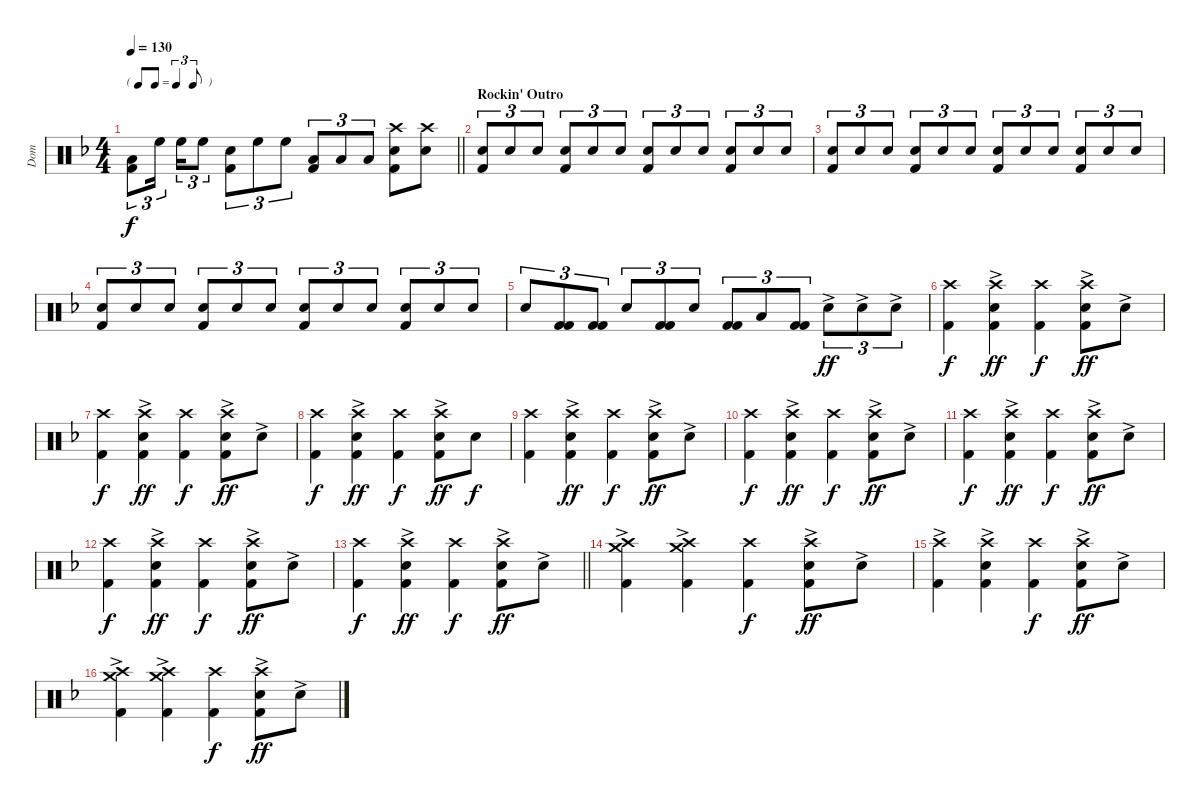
\track ("Dom" "Dom") {instrument percussion}
\staff {score}
\articulation defaults
\ts (4 4)
\tf triplet8th
\tempo 130
\clef neutral
\barLineRight lightlight
\ks dminor
("Low Tom (hit)" "Kick (hit) 2").8{tu (3 2) dy f} "High Floor Tom (hit)".16{tu (3 2) beam splitsecondary} "High Floor Tom (hit)".16{tu (3 2)} "High Floor Tom (hit)".8{tu (3 2)} ("Electric Snare (hit)" "Kick (hit) 2").8{tu (3 2)} "High Floor Tom (hit)".8{tu (3 2)} "High Floor Tom (hit)".8{tu (3 2)} ("Low Tom (hit)" "Kick (hit) 2").8{tu (3 2)} "Low Tom (hit)".8{tu (3 2)} "Low Tom (hit)".8{tu (3 2)} ("Crash high (hit)" "Electric Snare (hit)" "Kick (hit) 2").8 ("Crash high (hit)" "Electric Snare (hit)").8 |
\section ("" "Rockin' Outro")
("Electric Snare (hit)" "Kick (hit) 2").8{tu (3 2)} "Electric Snare (hit)".8{tu (3 2)} "Electric Snare (hit)".8{tu (3 2)} ("Electric Snare (hit)" "Kick (hit) 2").8{tu (3 2)} "Electric Snare (hit)".8{tu (3 2)} "Electric Snare (hit)".8{tu (3 2)} ("Electric Snare (hit)" "Kick (hit) 2").8{tu (3 2)} "Electric Snare (hit)".8{tu (3 2)} "Electric Snare (hit)".8{tu (3 2)} ("Electric Snare (hit)" "Kick (hit) 2").8{tu (3 2)} "Electric Snare (hit)".8{tu (3 2)} "Electric Snare (hit)".8{tu (3 2)} |
("Electric Snare (hit)" "Kick (hit) 2").8{tu (3 2)} "Electric Snare (hit)".8{tu (3 2)} "Electric Snare (hit)".8{tu (3 2)} ("Electric Snare (hit)" "Kick (hit) 2").8{tu (3 2)} "Electric Snare (hit)".8{tu (3 2)} "Electric Snare (hit)".8{tu (3 2)} ("Electric Snare (hit)" "Kick (hit) 2").8{tu (3 2)} "Electric Snare (hit)".8{tu (3 2)} "Electric Snare (hit)".8{tu (3 2)} ("Electric Snare (hit)" "Kick (hit) 2").8{tu (3 2)} "Electric Snare (hit)".8{tu (3 2)} "Electric Snare (hit)".8{tu (3 2)} |
("Electric Snare (hit)" "Kick (hit) 2").8{tu (3 2)} "Electric Snare (hit)".8{tu (3 2)} "Electric Snare (hit)".8{tu (3 2)} ("Electric Snare (hit)" "Kick (hit) 2").8{tu (3 2)} "Electric Snare (hit)".8{tu (3 2)} "Electric Snare (hit)".8{tu (3 2)} ("Electric Snare (hit)" "Kick (hit) 2").8{tu (3 2)} "Electric Snare (hit)".8{tu (3 2)} "Electric Snare (hit)".8{tu (3 2)} ("Electric Snare (hit)" "Kick (hit) 2").8{tu (3 2)} "Electric Snare (hit)".8{tu (3 2)} "Electric Snare (hit)".8{tu (3 2)} |
"Electric Snare (hit)".8{tu (3 2)} ("Kick (hit) 2" "Kick (hit) 2").8{tu (3 2)} ("Kick (hit) 2" "Kick (hit) 2").8{tu (3 2)} "Electric Snare (hit)".8{tu (3 2)} ("Kick (hit) 2" "Kick (hit) 2").8{tu (3 2)} "Electric Snare (hit)".8{tu (3 2)} ("Kick (hit) 2" "Kick (hit) 2").8{tu (3 2)} "Low Tom (hit)".8{tu (3 2)} ("Kick (hit) 2" "Kick (hit) 2").8{tu (3 2)} "Electric Snare (hit)"{ac}.8{tu (3 2) dy ff} "Electric Snare (hit)"{ac}.8{tu (3 2)} "Electric Snare (hit)"{ac}.8{tu (3 2)} |
("Crash high (hit)" "Kick (hit) 2").4{dy f} ("Crash high (hit)" "Electric Snare (hit)"{ac} "Kick (hit) 2").4{dy ff} ("Crash high (hit)" "Kick (hit) 2").4{dy f} ("Crash high (hit)" "Electric Snare (hit)"{ac} "Kick (hit) 2").8{dy ff} "Electric Snare (hit)"{ac}.8 |
("Crash high (hit)" "Kick (hit) 2").4{dy f} ("Crash high (hit)" "Electric Snare (hit)"{ac} "Kick (hit) 2").4{dy ff} ("Crash high (hit)" "Kick (hit) 2").4{dy f} ("Crash high (hit)" "Electric Snare (hit)"{ac} "Kick (hit) 2").8{dy ff} "Electric Snare (hit)"{ac}.8 |
("Crash high (hit)" "Kick (hit) 2").4{dy f} ("Crash high (hit)" "Electric Snare (hit)"{ac} "Kick (hit) 2").4{dy ff} ("Crash high (hit)" "Kick (hit) 2").4{dy f} ("Crash high (hit)" "Electric Snare (hit)"{ac} "Kick (hit) 2").8{dy ff} "Electric Snare (hit)".8{dy f} |
("Crash high (hit)" "Kick (hit) 2").4 ("Crash high (hit)" "Electric Snare (hit)"{ac} "Kick (hit) 2").4{dy ff} ("Crash high (hit)" "Kick (hit) 2").4{dy f} ("Crash high (hit)" "Electric Snare (hit)"{ac} "Kick (hit) 2").8{dy ff} "Electric Snare (hit)"{ac}.8 |
("Crash high (hit)" "Kick (hit) 2").4{dy f} ("Crash high (hit)" "Electric Snare (hit)"{ac} "Kick (hit) 2").4{dy ff} ("Crash high (hit)" "Kick (hit) 2").4{dy f} ("Crash high (hit)" "Electric Snare (hit)"{ac} "Kick (hit) 2").8{dy ff} "Electric Snare (hit)"{ac}.8 |
("Crash high (hit)" "Kick (hit) 2").4{dy f} ("Crash high (hit)" "Electric Snare (hit)"{ac} "Kick (hit) 2").4{dy ff} ("Crash high (hit)" "Kick (hit) 2").4{dy f} ("Crash high (hit)" "Electric Snare (hit)"{ac} "Kick (hit) 2").8{dy ff} "Electric Snare (hit)"{ac}.8 |
("Crash high (hit)" "Kick (hit) 2").4{dy f} ("Crash high (hit)" "Electric Snare (hit)"{ac} "Kick (hit) 2").4{dy ff} ("Crash high (hit)" "Kick (hit) 2").4{dy f} ("Crash high (hit)" "Electric Snare (hit)"{ac} "Kick (hit) 2").8{dy ff} "Electric Snare (hit)"{ac}.8 |
\barLineRight lightlight
("Crash high (hit)" "Kick (hit) 2").4{dy f} ("Crash high (hit)" "Electric Snare (hit)"{ac} "Kick (hit) 2").4{dy ff} ("Crash high (hit)" "Kick (hit) 2").4{dy f} ("Crash high (hit)" "Electric Snare (hit)"{ac} "Kick (hit) 2").8{dy ff} "Electric Snare (hit)"{ac}.8 |
("Crash high (hit)"{ac} "Crash medium (hit)"{ac} "Kick (hit) 2").4 ("Crash high (hit)"{ac} "Crash medium (hit)"{ac} "Kick (hit) 2").4 ("Crash high (hit)" "Kick (hit) 2").4{dy f} ("Crash high (hit)" "Electric Snare (hit)"{ac} "Kick (hit) 2").8{dy ff} "Electric Snare (hit)"{ac}.8 |
("Crash high (hit)"{ac} "Kick (hit) 2").4 ("Crash high (hit)" "Electric Snare (hit)"{ac} "Kick (hit) 2").4 ("Crash high (hit)" "Kick (hit) 2").4{dy f} ("Crash high (hit)" "Electric Snare (hit)"{ac} "Kick (hit) 2").8{dy ff} "Electric Snare (hit)"{ac}.8 |
("Crash high (hit)"{ac} "Crash medium (hit)"{ac} "Kick (hit) 2").4 ("Crash high (hit)"{ac} "Crash medium (hit)"{ac} "Kick (hit) 2").4 ("Crash high (hit)" "Kick (hit) 2").4{dy f} ("Crash high (hit)" "Electric Snare (hit)"{ac} "Kick (hit) 2").8{dy ff} "Electric Snare (hit)"{ac}.8
